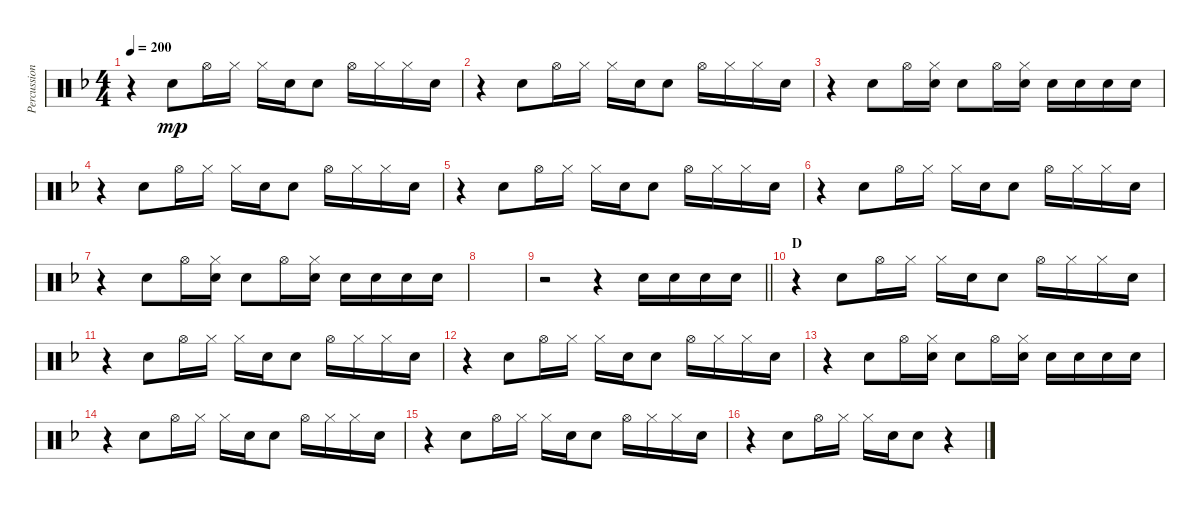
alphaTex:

\track ("Percussion (Tainaka Ritsu)" "Percussion") {instrument percussion}
\staff {score}
\articulation defaults
\ts (4 4)
\tempo 200
\clef neutral
\ks f
r.4{dy mp} "Electric Snare (hit)".8 "Hi-Hat (open)".16 "Hi-Hat (closed)".16 "Hi-Hat (closed)".16 "Electric Snare (hit)".16 "Electric Snare (hit)".8 "Hi-Hat (open)".16 "Hi-Hat (closed)".16 "Hi-Hat (closed)".16 "Electric Snare (hit)".16 |
r.4 "Electric Snare (hit)".8 "Hi-Hat (open)".16 "Hi-Hat (closed)".16 "Hi-Hat (closed)".16 "Electric Snare (hit)".16 "Electric Snare (hit)".8 "Hi-Hat (open)".16 "Hi-Hat (closed)".16 "Hi-Hat (closed)".16 "Electric Snare (hit)".16 |
r.4 "Electric Snare (hit)".8 "Hi-Hat (open)".16 ("Hi-Hat (closed)" "Electric Snare (hit)").16 "Electric Snare (hit)".8 "Hi-Hat (open)".16 ("Hi-Hat (closed)" "Electric Snare (hit)").16 "Electric Snare (hit)".16 "Electric Snare (hit)".16 "Electric Snare (hit)".16 "Electric Snare (hit)".16 |
r.4 "Electric Snare (hit)".8 "Hi-Hat (open)".16 "Hi-Hat (closed)".16 "Hi-Hat (closed)".16 "Electric Snare (hit)".16 "Electric Snare (hit)".8 "Hi-Hat (open)".16 "Hi-Hat (closed)".16 "Hi-Hat (closed)".16 "Electric Snare (hit)".16 |
r.4 "Electric Snare (hit)".8 "Hi-Hat (open)".16 "Hi-Hat (closed)".16 "Hi-Hat (closed)".16 "Electric Snare (hit)".16 "Electric Snare (hit)".8 "Hi-Hat (open)".16 "Hi-Hat (closed)".16 "Hi-Hat (closed)".16 "Electric Snare (hit)".16 |
r.4 "Electric Snare (hit)".8 "Hi-Hat (open)".16 "Hi-Hat (closed)".16 "Hi-Hat (closed)".16 "Electric Snare (hit)".16 "Electric Snare (hit)".8 "Hi-Hat (open)".16 "Hi-Hat (closed)".16 "Hi-Hat (closed)".16 "Electric Snare (hit)".16 |
r.4 "Electric Snare (hit)".8 "Hi-Hat (open)".16 ("Hi-Hat (closed)" "Electric Snare (hit)").16 "Electric Snare (hit)".8 "Hi-Hat (open)".16 ("Hi-Hat (closed)" "Electric Snare (hit)").16 "Electric Snare (hit)".16 "Electric Snare (hit)".16 "Electric Snare (hit)".16 "Electric Snare (hit)".16 |
|
\barLineRight lightlight
r.2 r.4 "Electric Snare (hit)".16 "Electric Snare (hit)".16 "Electric Snare (hit)".16 "Electric Snare (hit)".16 |
\section ("" "D")
r.4 "Electric Snare (hit)".8 "Hi-Hat (open)".16 "Hi-Hat (closed)".16 "Hi-Hat (closed)".16 "Electric Snare (hit)".16 "Electric Snare (hit)".8 "Hi-Hat (open)".16 "Hi-Hat (closed)".16 "Hi-Hat (closed)".16 "Electric Snare (hit)".16 |
r.4 "Electric Snare (hit)".8 "Hi-Hat (open)".16 "Hi-Hat (closed)".16 "Hi-Hat (closed)".16 "Electric Snare (hit)".16 "Electric Snare (hit)".8 "Hi-Hat (open)".16 "Hi-Hat (closed)".16 "Hi-Hat (closed)".16 "Electric Snare (hit)".16 |
r.4 "Electric Snare (hit)".8 "Hi-Hat (open)".16 "Hi-Hat (closed)".16 "Hi-Hat (closed)".16 "Electric Snare (hit)".16 "Electric Snare (hit)".8 "Hi-Hat (open)".16 "Hi-Hat (closed)".16 "Hi-Hat (closed)".16 "Electric Snare (hit)".16 |
r.4 "Electric Snare (hit)".8 "Hi-Hat (open)".16 ("Hi-Hat (closed)" "Electric Snare (hit)").16 "Electric Snare (hit)".8 "Hi-Hat (open)".16 ("Hi-Hat (closed)" "Electric Snare (hit)").16 "Electric Snare (hit)".16 "Electric Snare (hit)".16 "Electric Snare (hit)".16 "Electric Snare (hit)".16 |
r.4 "Electric Snare (hit)".8 "Hi-Hat (open)".16 "Hi-Hat (closed)".16 "Hi-Hat (closed)".16 "Electric Snare (hit)".16 "Electric Snare (hit)".8 "Hi-Hat (open)".16 "Hi-Hat (closed)".16 "Hi-Hat (closed)".16 "Electric Snare (hit)".16 |
r.4 "Electric Snare (hit)".8 "Hi-Hat (open)".16 "Hi-Hat (closed)".16 "Hi-Hat (closed)".16 "Electric Snare (hit)".16 "Electric Snare (hit)".8 "Hi-Hat (open)".16 "Hi-Hat (closed)".16 "Hi-Hat (closed)".16 "Electric Snare (hit)".16 |
r.4 "Electric Snare (hit)".8 "Hi-Hat (open)".16 "Hi-Hat (closed)".16 "Hi-Hat (closed)".16 "Electric Snare (hit)".16 "Electric Snare (hit)".8 r.4
